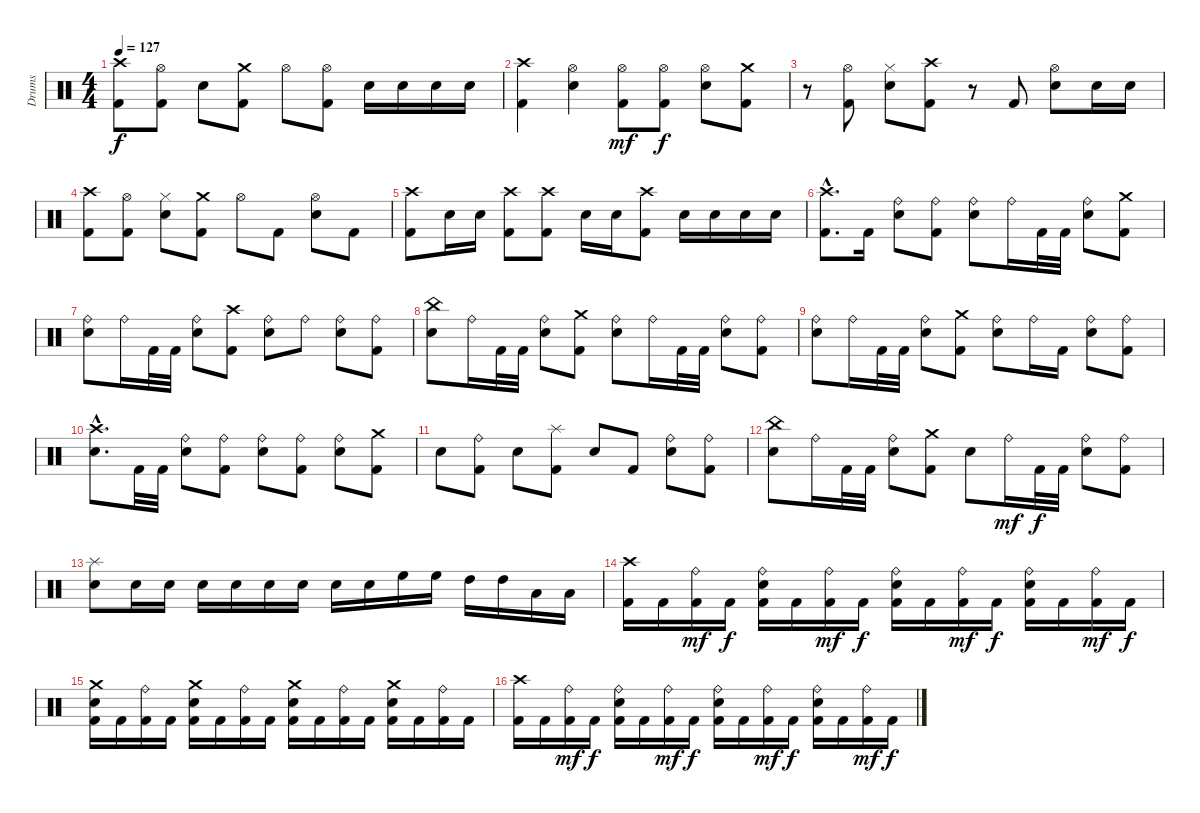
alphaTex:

\track ("Drums" "Drums") {instrument percussion}
\staff {score}
\articulation defaults
\ts (4 4)
\tempo 127
\clef neutral
\ks c
("Kick (hit) 2" "Crash high (hit)").8{dy f} ("Kick (hit) 2" "Hi-Hat (open)").8 "Electric Snare (hit)".8 ("Kick (hit) 2" "Crash medium (hit)").8 "Hi-Hat (open)".8 ("Kick (hit) 2" "Hi-Hat (open)").8 "Electric Snare (hit)".16 "Electric Snare (hit)".16 "Electric Snare (hit)".16 "Electric Snare (hit)".16 |
("Crash high (hit)" "Kick (hit) 2").4 ("Hi-Hat (open)" "Electric Snare (hit)").4 ("Kick (hit) 2" "Hi-Hat (open)").8{dy mf} ("Kick (hit) 2" "Hi-Hat (open)").8{dy f} ("Electric Snare (hit)" "Hi-Hat (open)").8 ("Kick (hit) 2" "Crash medium (hit)").8 |
r.8 ("Kick (hit) 2" "Hi-Hat (open)").8 ("Electric Snare (hit)" "Hi-Hat (closed)").8 ("Kick (hit) 2" "Crash high (hit)").8 r.8 "Kick (hit) 2".8 ("Electric Snare (hit)" "Hi-Hat (open)").8 "Electric Snare (hit)".16 "Electric Snare (hit)".16 |
("Crash high (hit)" "Kick (hit) 2").8 ("Kick (hit) 2" "Hi-Hat (open)").8 ("Electric Snare (hit)" "Hi-Hat (closed)").8 ("Kick (hit) 2" "Crash medium (hit)").8 "Hi-Hat (open)".8 "Kick (hit) 2".8 ("Electric Snare (hit)" "Hi-Hat (open)").8 "Kick (hit) 2".8 |
("Crash high (hit)" "Kick (hit) 2").8 "Electric Snare (hit)".16 "Electric Snare (hit)".16 ("Crash high (hit)" "Kick (hit) 2").8 ("Crash high (hit)" "Kick (hit) 2").8 "Electric Snare (hit)".16 "Electric Snare (hit)".16 ("Crash high (hit)" "Kick (hit) 2").8 "Electric Snare (hit)".16 "Electric Snare (hit)".16 "Electric Snare (hit)".16 "Electric Snare (hit)".16 |
("Crash high (hit)" "Kick (hit) 2"{hac}).8{d} "Kick (hit) 2".16 ("Electric Snare (hit)" "Ride (bell)").8 ("Kick (hit) 2" "Ride (bell)").8 ("Electric Snare (hit)" "Ride (bell)").8 "Ride (bell)".16 "Kick (hit) 2".32 "Kick (hit) 2".32 ("Electric Snare (hit)" "Ride (bell)").8 ("Kick (hit) 2" "Crash medium (hit)").8 |
("Ride (bell)" "Electric Snare (hit)").8 "Ride (bell)".16 "Kick (hit) 2".32 "Kick (hit) 2".32 ("Electric Snare (hit)" "Ride (bell)").8 ("Kick (hit) 2" "Crash high (hit)").8 ("Ride (bell)" "Electric Snare (hit)").8 "Ride (bell)".8 ("Ride (bell)" "Electric Snare (hit)").8 ("Ride (bell)" "Kick (hit) 2").8 |
("Electric Snare (hit)" "China (hit)").8 "Ride (bell)".16 "Kick (hit) 2".32 "Kick (hit) 2".32 ("Electric Snare (hit)" "Ride (bell)").8 ("Kick (hit) 2" "Crash medium (hit)").8 ("Electric Snare (hit)" "Ride (bell)").8 "Ride (bell)".16 "Kick (hit) 2".32 "Kick (hit) 2".32 ("Electric Snare (hit)" "Ride (bell)").8 ("Ride (bell)" "Kick (hit) 2").8 |
("Electric Snare (hit)" "Ride (bell)").8 "Ride (bell)".16 "Kick (hit) 2".32 "Kick (hit) 2".32 ("Electric Snare (hit)" "Ride (bell)").8 ("Kick (hit) 2" "Crash medium (hit)").8 ("Electric Snare (hit)" "Ride (bell)").8 "Ride (bell)".16 "Kick (hit) 2".16 ("Electric Snare (hit)" "Ride (bell)").8 ("Ride (bell)" "Kick (hit) 2").8 |
("Crash high (hit)" "Electric Snare (hit)"{hac}).8{d} "Kick (hit) 2".32 "Kick (hit) 2".32 ("Electric Snare (hit)" "Ride (bell)").8 ("Kick (hit) 2" "Ride (bell)").8 ("Electric Snare (hit)" "Ride (bell)").8 ("Ride (bell)" "Kick (hit) 2").8 ("Electric Snare (hit)" "Ride (bell)").8 ("Kick (hit) 2" "Crash medium (hit)").8 |
"Electric Snare (hit)".8 ("Ride (bell)" "Kick (hit) 2").8 "Electric Snare (hit)".8 ("Kick (hit) 2" "Splash (hit)").8 "Electric Snare (hit)".8 "Kick (hit) 2".8 ("Ride (bell)" "Electric Snare (hit)").8 ("Ride (bell)" "Kick (hit) 2").8 |
("Electric Snare (hit)" "China (hit)").8 "Ride (bell)".16 "Kick (hit) 2".32 "Kick (hit) 2".32 ("Electric Snare (hit)" "Ride (bell)").8 ("Kick (hit) 2" "Crash medium (hit)").8 "Electric Snare (hit)".8 "Ride (bell)".16{dy mf} "Kick (hit) 2".32{dy f} "Kick (hit) 2".32 ("Electric Snare (hit)" "Ride (bell)").8 ("Ride (bell)" "Kick (hit) 2").8 |
("Electric Snare (hit)" "Splash (hit)").8 "Electric Snare (hit)".16 "Electric Snare (hit)".16 "Electric Snare (hit)".16 "Electric Snare (hit)".16 "Electric Snare (hit)".16 "Electric Snare (hit)".16 "Electric Snare (hit)".16 "Electric Snare (hit)".16 "High Floor Tom (hit)".16 "High Floor Tom (hit)".16 "High Tom (hit)".16 "High Tom (hit)".16 "Low Tom (hit)".16 "Low Tom (hit)".16 |
("Kick (hit) 2" "Crash high (hit)").16 "Kick (hit) 2".16 ("Kick (hit) 2" "Ride (bell)").16{dy mf} "Kick (hit) 2".16{dy f} ("Kick (hit) 2" "Electric Snare (hit)" "Ride (bell)").16 "Kick (hit) 2".16 ("Kick (hit) 2" "Ride (bell)").16{dy mf} "Kick (hit) 2".16{dy f} ("Kick (hit) 2" "Electric Snare (hit)" "Ride (bell)").16 "Kick (hit) 2".16 ("Kick (hit) 2" "Ride (bell)").16{dy mf} "Kick (hit) 2".16{dy f} ("Kick (hit) 2" "Electric Snare (hit)" "Ride (bell)").16 "Kick (hit) 2".16 ("Kick (hit) 2" "Ride (bell)").16{dy mf} "Kick (hit) 2".16{dy f} |
("Kick (hit) 2" "Electric Snare (hit)" "Crash medium (hit)").16 "Kick (hit) 2".16 ("Kick (hit) 2" "Ride (bell)").16 "Kick (hit) 2".16 ("Kick (hit) 2" "Electric Snare (hit)" "Crash medium (hit)").16 "Kick (hit) 2".16 ("Kick (hit) 2" "Ride (bell)").16 "Kick (hit) 2".16 ("Kick (hit) 2" "Electric Snare (hit)" "Crash medium (hit)").16 "Kick (hit) 2".16 ("Kick (hit) 2" "Ride (bell)").16 "Kick (hit) 2".16 ("Kick (hit) 2" "Electric Snare (hit)" "Crash medium (hit)").16 "Kick (hit) 2".16 ("Kick (hit) 2" "Ride (bell)").16 "Kick (hit) 2".16 |
("Crash high (hit)" "Kick (hit) 2").16 "Kick (hit) 2".16 ("Kick (hit) 2" "Ride (bell)").16{dy mf} "Kick (hit) 2".16{dy f} ("Kick (hit) 2" "Electric Snare (hit)" "Ride (bell)").16 "Kick (hit) 2".16 ("Kick (hit) 2" "Ride (bell)").16{dy mf} "Kick (hit) 2".16{dy f} ("Kick (hit) 2" "Electric Snare (hit)" "Ride (bell)").16 "Kick (hit) 2".16 ("Kick (hit) 2" "Ride (bell)").16{dy mf} "Kick (hit) 2".16{dy f} ("Kick (hit) 2" "Electric Snare (hit)" "Ride (bell)").16 "Kick (hit) 2".16 ("Kick (hit) 2" "Ride (bell)").16{dy mf} "Kick (hit) 2".16{dy f}
